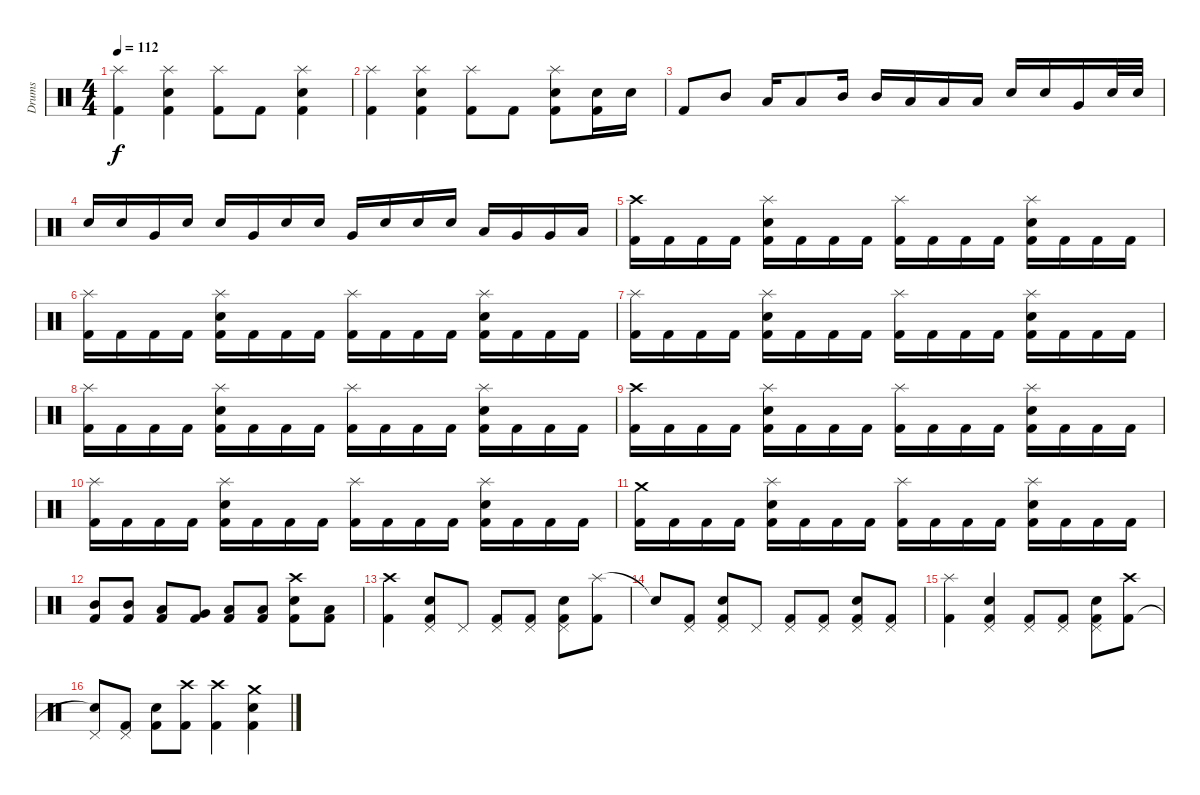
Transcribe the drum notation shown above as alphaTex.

\track ("Drums" "Drums") {instrument percussion}
\staff {score}
\articulation defaults
\ts (4 4)
\tempo 112
\clef neutral
\ks c
("Splash (hit)" "Kick (hit) 2").4{dy f} ("Splash (hit)" "Electric Snare (hit)" "Kick (hit) 2").4 ("Splash (hit)" "Kick (hit) 2").8 "Kick (hit) 2".8 ("Splash (hit)" "Electric Snare (hit)" "Kick (hit) 2").4 |
("Splash (hit)" "Kick (hit) 2").4 ("Splash (hit)" "Electric Snare (hit)" "Kick (hit) 2").4 ("Splash (hit)" "Kick (hit) 2").8 "Kick (hit) 2".8 ("Splash (hit)" "Electric Snare (hit)" "Kick (hit) 2").8 ("Electric Snare (hit)" "Kick (hit) 2").16 "Electric Snare (hit)".16 |
"Kick (hit) 2".8 "Mid Tom (hit)".8 "Low Tom (hit)".16 "Low Tom (hit)".8 "Mid Tom (hit)".16 "Mid Tom (hit)".16 "Low Tom (hit)".16 "Low Tom (hit)".16 "Low Tom (hit)".16 "Electric Snare (hit)".16 "Electric Snare (hit)".16 "Very Low Tom (hit)".16 "Electric Snare (hit)".32 "Electric Snare (hit)".32 |
"Electric Snare (hit)".16 "Electric Snare (hit)".16 "Very Low Tom (hit)".16 "Electric Snare (hit)".16 "Electric Snare (hit)".16 "Very Low Tom (hit)".16 "Electric Snare (hit)".16 "Electric Snare (hit)".16 "Very Low Tom (hit)".16 "Electric Snare (hit)".16 "Electric Snare (hit)".16 "Electric Snare (hit)".16 "Low Tom (hit)".16 "Very Low Tom (hit)".16 "Very Low Tom (hit)".16 "Low Floor Tom (hit)".16 |
("Crash high (hit)" "Kick (hit) 2").16 "Kick (hit) 2".16 "Kick (hit) 2".16 "Kick (hit) 2".16 ("Splash (hit)" "Electric Snare (hit)" "Kick (hit) 2").16 "Kick (hit) 2".16 "Kick (hit) 2".16 "Kick (hit) 2".16 ("Splash (hit)" "Kick (hit) 2").16 "Kick (hit) 2".16 "Kick (hit) 2".16 "Kick (hit) 2".16 ("Splash (hit)" "Electric Snare (hit)" "Kick (hit) 2").16 "Kick (hit) 2".16 "Kick (hit) 2".16 "Kick (hit) 2".16 |
("Splash (hit)" "Kick (hit) 2").16 "Kick (hit) 2".16 "Kick (hit) 2".16 "Kick (hit) 2".16 ("Splash (hit)" "Electric Snare (hit)" "Kick (hit) 2").16 "Kick (hit) 2".16 "Kick (hit) 2".16 "Kick (hit) 2".16 ("Splash (hit)" "Kick (hit) 2").16 "Kick (hit) 2".16 "Kick (hit) 2".16 "Kick (hit) 2".16 ("Splash (hit)" "Electric Snare (hit)" "Kick (hit) 2").16 "Kick (hit) 2".16 "Kick (hit) 2".16 "Kick (hit) 2".16 |
("Splash (hit)" "Kick (hit) 2").16 "Kick (hit) 2".16 "Kick (hit) 2".16 "Kick (hit) 2".16 ("Splash (hit)" "Electric Snare (hit)" "Kick (hit) 2").16 "Kick (hit) 2".16 "Kick (hit) 2".16 "Kick (hit) 2".16 ("Splash (hit)" "Kick (hit) 2").16 "Kick (hit) 2".16 "Kick (hit) 2".16 "Kick (hit) 2".16 ("Splash (hit)" "Electric Snare (hit)" "Kick (hit) 2").16 "Kick (hit) 2".16 "Kick (hit) 2".16 "Kick (hit) 2".16 |
("Splash (hit)" "Kick (hit) 2").16 "Kick (hit) 2".16 "Kick (hit) 2".16 "Kick (hit) 2".16 ("Splash (hit)" "Electric Snare (hit)" "Kick (hit) 2").16 "Kick (hit) 2".16 "Kick (hit) 2".16 "Kick (hit) 2".16 ("Splash (hit)" "Kick (hit) 2").16 "Kick (hit) 2".16 "Kick (hit) 2".16 "Kick (hit) 2".16 ("Splash (hit)" "Electric Snare (hit)" "Kick (hit) 2").16 "Kick (hit) 2".16 "Kick (hit) 2".16 "Kick (hit) 2".16 |
("Crash high (hit)" "Kick (hit) 2").16 "Kick (hit) 2".16 "Kick (hit) 2".16 "Kick (hit) 2".16 ("Splash (hit)" "Electric Snare (hit)" "Kick (hit) 2").16 "Kick (hit) 2".16 "Kick (hit) 2".16 "Kick (hit) 2".16 ("Splash (hit)" "Kick (hit) 2").16 "Kick (hit) 2".16 "Kick (hit) 2".16 "Kick (hit) 2".16 ("Splash (hit)" "Electric Snare (hit)" "Kick (hit) 2").16 "Kick (hit) 2".16 "Kick (hit) 2".16 "Kick (hit) 2".16 |
("Splash (hit)" "Kick (hit) 2").16 "Kick (hit) 2".16 "Kick (hit) 2".16 "Kick (hit) 2".16 ("Splash (hit)" "Electric Snare (hit)" "Kick (hit) 2").16 "Kick (hit) 2".16 "Kick (hit) 2".16 "Kick (hit) 2".16 ("Splash (hit)" "Kick (hit) 2").16 "Kick (hit) 2".16 "Kick (hit) 2".16 "Kick (hit) 2".16 ("Splash (hit)" "Electric Snare (hit)" "Kick (hit) 2").16 "Kick (hit) 2".16 "Kick (hit) 2".16 "Kick (hit) 2".16 |
("Crash medium (hit)" "Kick (hit) 2").16 "Kick (hit) 2".16 "Kick (hit) 2".16 "Kick (hit) 2".16 ("Splash (hit)" "Electric Snare (hit)" "Kick (hit) 2").16 "Kick (hit) 2".16 "Kick (hit) 2".16 "Kick (hit) 2".16 ("Splash (hit)" "Kick (hit) 2").16 "Kick (hit) 2".16 "Kick (hit) 2".16 "Kick (hit) 2".16 ("Splash (hit)" "Electric Snare (hit)" "Kick (hit) 2").16 "Kick (hit) 2".16 "Kick (hit) 2".16 "Kick (hit) 2".16 |
("Mid Tom (hit)" "Kick (hit) 2").8 ("Mid Tom (hit)" "Kick (hit) 2").8 ("Low Tom (hit)" "Kick (hit) 2").8 ("Very Low Tom (hit)" "Kick (hit) 2").8 ("Low Floor Tom (hit)" "Kick (hit) 2").8 ("Low Floor Tom (hit)" "Kick (hit) 2").8 ("Crash high (hit)" "Electric Snare (hit)" "Kick (hit) 2").8 ("Low Floor Tom (hit)" "Kick (hit) 2").8 |
("Crash high (hit)" "Kick (hit) 2").4 ("Pedal Hi-Hat (hit)" "Electric Snare (hit)" "Kick (hit) 2").8 "Pedal Hi-Hat (hit)".8 ("Pedal Hi-Hat (hit)" "Kick (hit) 2").8 ("Pedal Hi-Hat (hit)" "Kick (hit) 2").8 ("Pedal Hi-Hat (hit)" "Electric Snare (hit)" "Kick (hit) 2").8 ("Splash (hit)" "Kick (hit) 2").8 |
"Snare (hit)"{t}.8 ("Pedal Hi-Hat (hit)" "Kick (hit) 2").8 ("Pedal Hi-Hat (hit)" "Electric Snare (hit)" "Kick (hit) 2").8 "Pedal Hi-Hat (hit)".8 ("Pedal Hi-Hat (hit)" "Kick (hit) 2").8 ("Pedal Hi-Hat (hit)" "Kick (hit) 2").8 ("Pedal Hi-Hat (hit)" "Electric Snare (hit)" "Kick (hit) 2").8 ("Pedal Hi-Hat (hit)" "Kick (hit) 2").8 |
("Splash (hit)" "Kick (hit) 2").4 ("Pedal Hi-Hat (hit)" "Electric Snare (hit)" "Kick (hit) 2").4 ("Pedal Hi-Hat (hit)" "Kick (hit) 2").8 ("Pedal Hi-Hat (hit)" "Kick (hit) 2").8 ("Pedal Hi-Hat (hit)" "Electric Snare (hit)" "Kick (hit) 2").8 ("Crash high (hit)" "Kick (hit) 2").8 |
("Pedal Hi-Hat (hit)" "Snare (hit)"{t}).8 ("Pedal Hi-Hat (hit)" "Kick (hit) 2").8 ("Electric Snare (hit)" "Kick (hit) 2").8 ("Crash high (hit)" "Kick (hit) 2").8 ("Crash high (hit)" "Kick (hit) 2").4 ("Crash medium (hit)" "Electric Snare (hit)" "Kick (hit) 2").4
